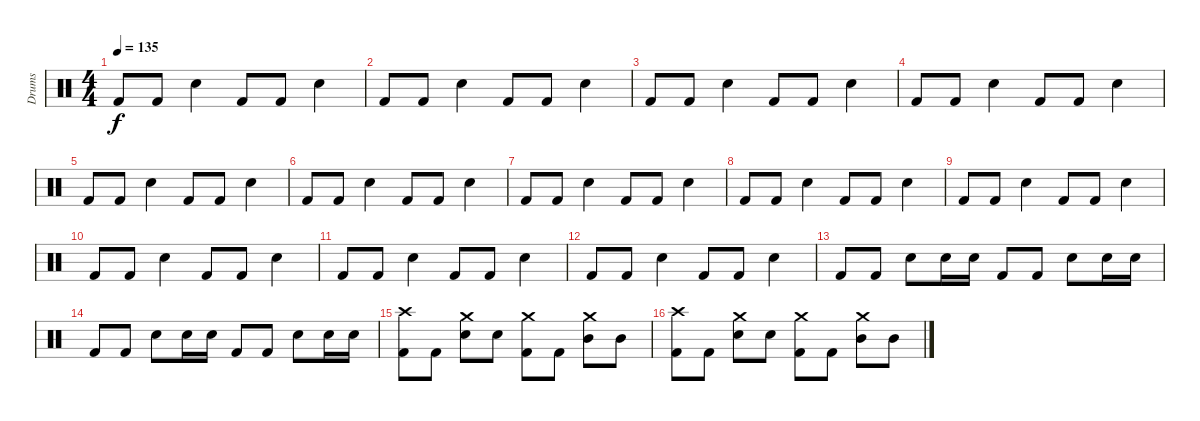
\track ("Drums" "Drums") {instrument percussion}
\staff {score}
\articulation defaults
\ts (4 4)
\tempo 135
\clef neutral
\ks c "Kick (hit) 2".8{dy f} "Kick (hit) 2".8 "Snare (hit) 2".4 "Kick (hit) 2".8 "Kick (hit) 2".8 "Snare (hit) 2".4
|
"Kick (hit) 2".8 "Kick (hit) 2".8 "Snare (hit) 2".4 "Kick (hit) 2".8 "Kick (hit) 2".8 "Snare (hit) 2".4 |
"Kick (hit) 2".8 "Kick (hit) 2".8 "Snare (hit) 2".4 "Kick (hit) 2".8 "Kick (hit) 2".8 "Snare (hit) 2".4 |
"Kick (hit) 2".8 "Kick (hit) 2".8 "Snare (hit) 2".4 "Kick (hit) 2".8 "Kick (hit) 2".8 "Snare (hit) 2".4 |
"Kick (hit) 2".8 "Kick (hit) 2".8 "Snare (hit) 2".4 "Kick (hit) 2".8 "Kick (hit) 2".8 "Snare (hit) 2".4 |
"Kick (hit) 2".8 "Kick (hit) 2".8 "Snare (hit) 2".4 "Kick (hit) 2".8 "Kick (hit) 2".8 "Snare (hit) 2".4 |
"Kick (hit) 2".8 "Kick (hit) 2".8 "Snare (hit) 2".4 "Kick (hit) 2".8 "Kick (hit) 2".8 "Snare (hit) 2".4 |
"Kick (hit) 2".8 "Kick (hit) 2".8 "Snare (hit) 2".4 "Kick (hit) 2".8 "Kick (hit) 2".8 "Snare (hit) 2".4 |
"Kick (hit) 2".8 "Kick (hit) 2".8 "Snare (hit) 2".4 "Kick (hit) 2".8 "Kick (hit) 2".8 "Snare (hit) 2".4 |
"Kick (hit) 2".8 "Kick (hit) 2".8 "Snare (hit) 2".4 "Kick (hit) 2".8 "Kick (hit) 2".8 "Snare (hit) 2".4 |
"Kick (hit) 2".8 "Kick (hit) 2".8 "Snare (hit) 2".4 "Kick (hit) 2".8 "Kick (hit) 2".8 "Snare (hit) 2".4 |
"Kick (hit) 2".8 "Kick (hit) 2".8 "Snare (hit) 2".4 "Kick (hit) 2".8 "Kick (hit) 2".8 "Snare (hit) 2".4 |
"Kick (hit) 2".8 "Kick (hit) 2".8 "Snare (hit) 2".8 "Snare (hit) 2".16 "Snare (hit) 2".16 "Kick (hit) 2".8 "Kick (hit) 2".8 "Snare (hit) 2".8 "Snare (hit) 2".16 "Snare (hit) 2".16 |
"Kick (hit) 2".8 "Kick (hit) 2".8 "Snare (hit) 2".8 "Snare (hit) 2".16 "Snare (hit) 2".16 "Kick (hit) 2".8 "Kick (hit) 2".8 "Snare (hit) 2".8 "Snare (hit) 2".16 "Snare (hit) 2".16 |
("Kick (hit) 2" "Crash high (hit)").8 "Kick (hit) 2".8 ("Snare (hit) 2" "Crash medium (hit)").8 "Snare (hit) 2".8 ("Kick (hit) 2" "Crash medium (hit)").8 "Kick (hit) 2".8 ("Mid Tom (hit)" "Crash medium (hit)").8 "Mid Tom (hit)".8 |
("Kick (hit) 2" "Crash high (hit)").8 "Kick (hit) 2".8 ("Snare (hit) 2" "Crash medium (hit)").8 "Snare (hit) 2".8 ("Kick (hit) 2" "Crash medium (hit)").8 "Kick (hit) 2".8 ("Mid Tom (hit)" "Crash medium (hit)").8 "Mid Tom (hit)".8
